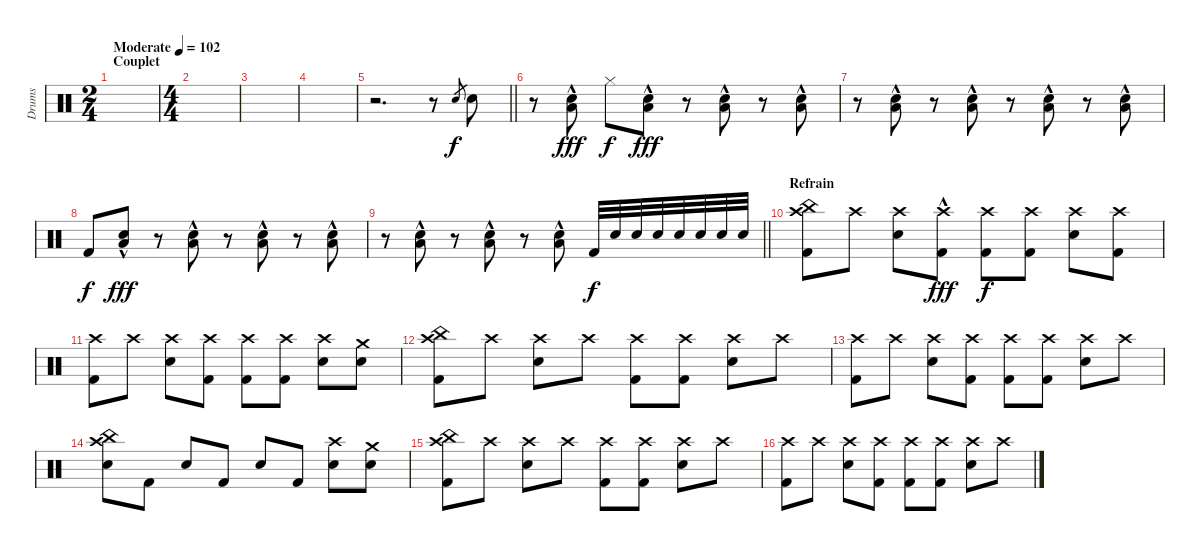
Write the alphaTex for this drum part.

\track ("Drums" "Drums") {instrument percussion}
\staff {score}
\articulation defaults
\ts (2 4)
\section ("" "Couplet")
\tempo (102 "Moderate")
\clef neutral
\ks c
|
\ts (4 4)
|
|
|
\barLineRight lightlight
r.2{d} r.8 "Snare (hit) 2".8{gr} "Snare (hit) 2".8 |
r.8 ("Low Floor Tom (hit)"{hac} "Snare (hit) 2").8{dy fff} "Hi-Hat (closed)".8{dy f} ("Low Floor Tom (hit)"{hac} "Snare (hit) 2").8{dy fff} r.8 ("Low Floor Tom (hit)"{hac} "Snare (hit) 2").8 r.8 ("Low Floor Tom (hit)"{hac} "Snare (hit) 2").8 |
r.8 ("Low Floor Tom (hit)"{hac} "Snare (hit) 2").8 r.8 ("Low Floor Tom (hit)"{hac} "Snare (hit) 2").8 r.8 ("Low Floor Tom (hit)"{hac} "Snare (hit) 2").8 r.8 ("Low Floor Tom (hit)"{hac} "Snare (hit) 2").8 |
"Kick (hit) 2".8{dy f} ("Low Floor Tom (hit)"{hac} "Snare (hit) 2").8{dy fff} r.8 ("Low Floor Tom (hit)"{hac} "Snare (hit) 2").8 r.8 ("Low Floor Tom (hit)"{hac} "Snare (hit) 2").8 r.8 ("Low Floor Tom (hit)"{hac} "Snare (hit) 2").8 |
\barLineRight lightlight
r.8 ("Low Floor Tom (hit)"{hac} "Snare (hit) 2").8 r.8 ("Low Floor Tom (hit)"{hac} "Snare (hit) 2").8 r.8 ("Low Floor Tom (hit)"{hac} "Snare (hit) 2").8 "Kick (hit) 2".32{dy f} "Snare (hit) 2".32 "Snare (hit) 2".32 "Snare (hit) 2".32 "Snare (hit) 2".32 "Snare (hit) 2".32 "Snare (hit) 2".32 "Snare (hit) 2".32 |
\section ("" "Refrain")
("Crash high (hit)" "China (hit)" "Kick (hit) 2").8 "Crash high (hit)".8 ("Crash high (hit)" "Snare (hit) 2").8 ("Crash high (hit)" "Kick (hit) 2"{hac}).8{dy fff} ("Crash high (hit)" "Kick (hit) 2").8{dy f} ("Crash high (hit)" "Kick (hit) 2").8 ("Crash high (hit)" "Snare (hit) 2").8 ("Crash high (hit)" "Kick (hit) 2").8 |
("Crash high (hit)" "Kick (hit) 2").8 "Crash high (hit)".8 ("Crash high (hit)" "Snare (hit) 2").8 ("Crash high (hit)" "Kick (hit) 2").8 ("Crash high (hit)" "Kick (hit) 2").8 ("Crash high (hit)" "Kick (hit) 2").8 ("Crash high (hit)" "Snare (hit) 2").8 ("Crash medium (hit)" "Snare (hit) 2").8 |
("Crash high (hit)" "China (hit)" "Kick (hit) 2").8 "Crash high (hit)".8 ("Crash high (hit)" "Snare (hit) 2").8 "Crash high (hit)".8 ("Crash high (hit)" "Kick (hit) 2").8 ("Crash high (hit)" "Kick (hit) 2").8 ("Crash high (hit)" "Snare (hit) 2").8 "Crash high (hit)".8 |
("Crash high (hit)" "Kick (hit) 2").8 "Crash high (hit)".8 ("Crash high (hit)" "Snare (hit) 2").8 ("Crash high (hit)" "Kick (hit) 2").8 ("Crash high (hit)" "Kick (hit) 2").8 ("Crash high (hit)" "Kick (hit) 2").8 ("Crash high (hit)" "Snare (hit) 2").8 "Crash high (hit)".8 |
("Crash high (hit)" "China (hit)" "Snare (hit) 2").8 "Kick (hit) 2".8 "Snare (hit) 2".8 "Kick (hit) 2".8 "Snare (hit) 2".8 "Kick (hit) 2".8 ("Crash high (hit)" "Snare (hit) 2").8 ("Crash medium (hit)" "Snare (hit) 2").8 |
("Crash high (hit)" "China (hit)" "Kick (hit) 2").8 "Crash high (hit)".8 ("Crash high (hit)" "Snare (hit) 2").8 "Crash high (hit)".8 ("Crash high (hit)" "Kick (hit) 2").8 ("Crash high (hit)" "Kick (hit) 2").8 ("Crash high (hit)" "Snare (hit) 2").8 "Crash high (hit)".8 |
("Crash high (hit)" "Kick (hit) 2").8 "Crash high (hit)".8 ("Crash high (hit)" "Snare (hit) 2").8 ("Crash high (hit)" "Kick (hit) 2").8 ("Crash high (hit)" "Kick (hit) 2").8 ("Crash high (hit)" "Kick (hit) 2").8 ("Crash high (hit)" "Snare (hit) 2").8 "Crash high (hit)".8
